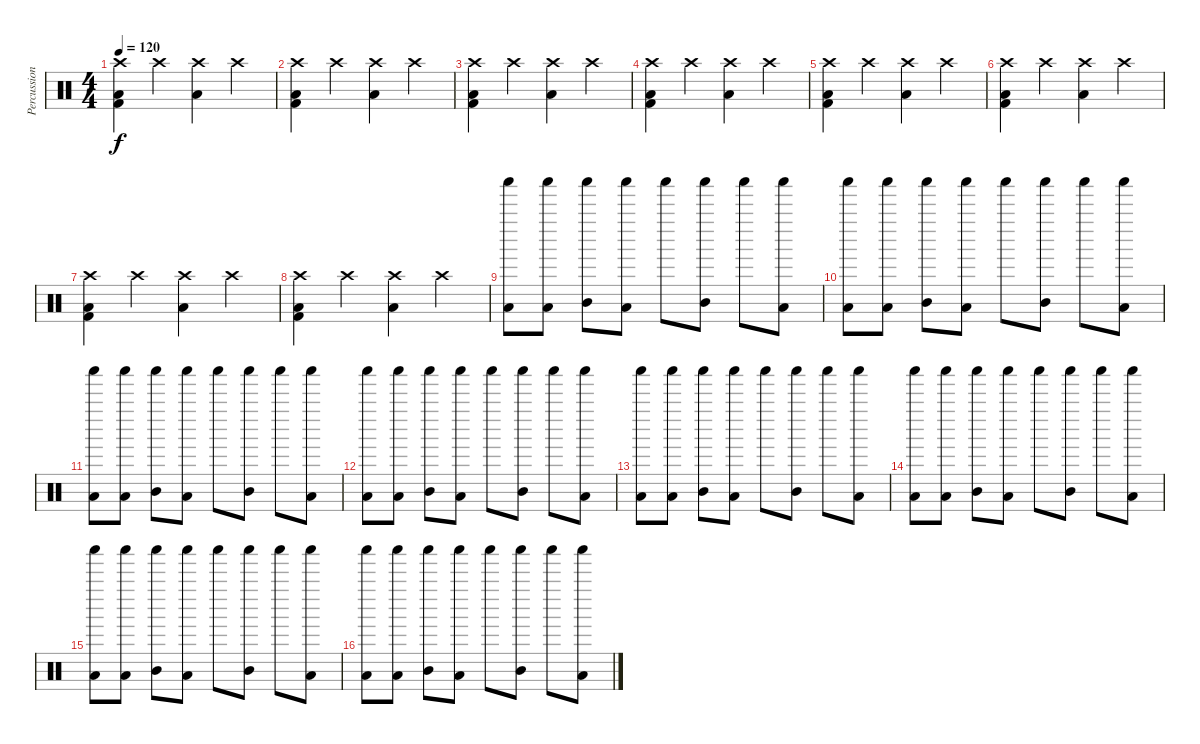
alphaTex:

\track ("Percussion" "Percussion") {instrument percussion}
\staff {score}
\articulation defaults
\ts (4 4)
\tempo 120
\clef neutral
\ks c
("Crash high (hit)" "Low Tom (hit)" "Kick (hit) 2").4{dy f} "Crash high (hit)".4 ("Crash high (hit)" "Low Tom (hit)").4 "Crash high (hit)".4 |
("Crash high (hit)" "Low Tom (hit)" "Kick (hit) 2").4 "Crash high (hit)".4 ("Crash high (hit)" "Low Tom (hit)").4 "Crash high (hit)".4 |
("Crash high (hit)" "Low Tom (hit)" "Kick (hit) 2").4 "Crash high (hit)".4 ("Crash high (hit)" "Low Tom (hit)").4 "Crash high (hit)".4 |
("Crash high (hit)" "Low Tom (hit)" "Kick (hit) 2").4 "Crash high (hit)".4 ("Crash high (hit)" "Low Tom (hit)").4 "Crash high (hit)".4 |
("Crash high (hit)" "Low Tom (hit)" "Kick (hit) 2").4 "Crash high (hit)".4 ("Crash high (hit)" "Low Tom (hit)").4 "Crash high (hit)".4 |
("Crash high (hit)" "Low Tom (hit)" "Kick (hit) 2").4 "Crash high (hit)".4 ("Crash high (hit)" "Low Tom (hit)").4 "Crash high (hit)".4 |
("Crash high (hit)" "Low Tom (hit)" "Kick (hit) 2").4 "Crash high (hit)".4 ("Crash high (hit)" "Low Tom (hit)").4 "Crash high (hit)".4 |
("Crash high (hit)" "Low Tom (hit)" "Kick (hit) 2").4 "Crash high (hit)".4 ("Crash high (hit)" "Low Tom (hit)").4 "Crash high (hit)".4 |
("Low Tom (hit)" "Shaker (hit)").8 ("Low Tom (hit)" "Shaker (hit)").8 ("Mid Tom (hit)" "Shaker (hit)").8 ("Low Tom (hit)" "Shaker (hit)").8 "Shaker (hit)".8 ("Mid Tom (hit)" "Shaker (hit)").8 "Shaker (hit)".8 ("Low Tom (hit)" "Shaker (hit)").8 |
("Low Tom (hit)" "Shaker (hit)").8 ("Low Tom (hit)" "Shaker (hit)").8 ("Mid Tom (hit)" "Shaker (hit)").8 ("Low Tom (hit)" "Shaker (hit)").8 "Shaker (hit)".8 ("Mid Tom (hit)" "Shaker (hit)").8 "Shaker (hit)".8 ("Low Tom (hit)" "Shaker (hit)").8 |
("Low Tom (hit)" "Shaker (hit)").8 ("Low Tom (hit)" "Shaker (hit)").8 ("Mid Tom (hit)" "Shaker (hit)").8 ("Low Tom (hit)" "Shaker (hit)").8 "Shaker (hit)".8 ("Mid Tom (hit)" "Shaker (hit)").8 "Shaker (hit)".8 ("Low Tom (hit)" "Shaker (hit)").8 |
("Low Tom (hit)" "Shaker (hit)").8 ("Low Tom (hit)" "Shaker (hit)").8 ("Mid Tom (hit)" "Shaker (hit)").8 ("Low Tom (hit)" "Shaker (hit)").8 "Shaker (hit)".8 ("Mid Tom (hit)" "Shaker (hit)").8 "Shaker (hit)".8 ("Low Tom (hit)" "Shaker (hit)").8 |
("Low Tom (hit)" "Shaker (hit)").8 ("Low Tom (hit)" "Shaker (hit)").8 ("Mid Tom (hit)" "Shaker (hit)").8 ("Low Tom (hit)" "Shaker (hit)").8 "Shaker (hit)".8 ("Mid Tom (hit)" "Shaker (hit)").8 "Shaker (hit)".8 ("Low Tom (hit)" "Shaker (hit)").8 |
("Low Tom (hit)" "Shaker (hit)").8 ("Low Tom (hit)" "Shaker (hit)").8 ("Mid Tom (hit)" "Shaker (hit)").8 ("Low Tom (hit)" "Shaker (hit)").8 "Shaker (hit)".8 ("Mid Tom (hit)" "Shaker (hit)").8 "Shaker (hit)".8 ("Low Tom (hit)" "Shaker (hit)").8 |
("Low Tom (hit)" "Shaker (hit)").8 ("Low Tom (hit)" "Shaker (hit)").8 ("Mid Tom (hit)" "Shaker (hit)").8 ("Low Tom (hit)" "Shaker (hit)").8 "Shaker (hit)".8 ("Mid Tom (hit)" "Shaker (hit)").8 "Shaker (hit)".8 ("Low Tom (hit)" "Shaker (hit)").8 |
("Low Tom (hit)" "Shaker (hit)").8 ("Low Tom (hit)" "Shaker (hit)").8 ("Mid Tom (hit)" "Shaker (hit)").8 ("Low Tom (hit)" "Shaker (hit)").8 "Shaker (hit)".8 ("Mid Tom (hit)" "Shaker (hit)").8 "Shaker (hit)".8 ("Low Tom (hit)" "Shaker (hit)").8
